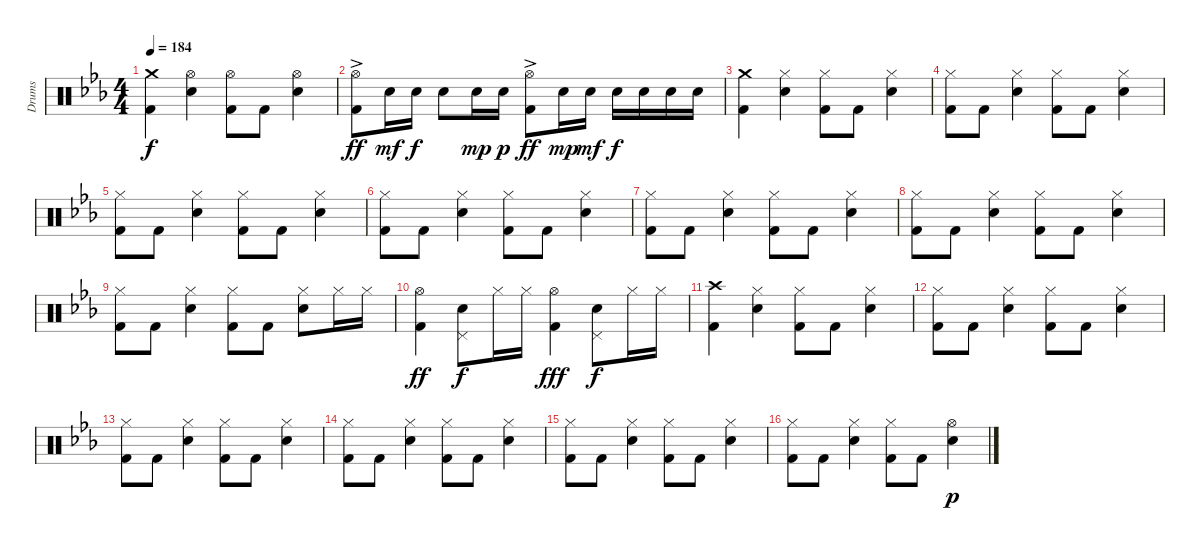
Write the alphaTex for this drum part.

\track ("Drums" "Drums") {instrument percussion}
\staff {score}
\articulation defaults
\ts (4 4)
\tempo 184
\clef neutral
\ks eb
("Crash medium (hit)" "Kick (hit) 2").4{dy f} ("Hi-Hat (open)" "Electric Snare (hit)").4 ("Hi-Hat (open)" "Kick (hit) 2").8 "Kick (hit) 2".8 ("Hi-Hat (open)" "Electric Snare (hit)").4 |
("Hi-Hat (open)"{ac} "Kick (hit) 2").8{dy ff} "Electric Snare (hit)".16{dy mf} "Electric Snare (hit)".16{dy f} "Electric Snare (hit)".8 "Electric Snare (hit)".16{dy mp} "Electric Snare (hit)".16{dy p} ("Hi-Hat (open)"{ac} "Kick (hit) 2").8{dy ff} "Electric Snare (hit)".16{dy mp} "Electric Snare (hit)".16{dy mf} "Electric Snare (hit)".16{dy f} "Electric Snare (hit)".16 "Electric Snare (hit)".16 "Electric Snare (hit)".16 |
("Crash medium (hit)" "Kick (hit) 2").4 ("Hi-Hat (closed)" "Electric Snare (hit)").4 ("Hi-Hat (closed)" "Kick (hit) 2").8 "Kick (hit) 2".8 ("Hi-Hat (closed)" "Electric Snare (hit)").4 |
("Hi-Hat (closed)" "Kick (hit) 2").8 "Kick (hit) 2".8 ("Hi-Hat (closed)" "Electric Snare (hit)").4 ("Hi-Hat (closed)" "Kick (hit) 2").8 "Kick (hit) 2".8 ("Hi-Hat (closed)" "Electric Snare (hit)").4 |
("Hi-Hat (closed)" "Kick (hit) 2").8 "Kick (hit) 2".8 ("Hi-Hat (closed)" "Electric Snare (hit)").4 ("Hi-Hat (closed)" "Kick (hit) 2").8 "Kick (hit) 2".8 ("Hi-Hat (closed)" "Electric Snare (hit)").4 |
("Hi-Hat (closed)" "Kick (hit) 2").8 "Kick (hit) 2".8 ("Hi-Hat (closed)" "Electric Snare (hit)").4 ("Hi-Hat (closed)" "Kick (hit) 2").8 "Kick (hit) 2".8 ("Hi-Hat (closed)" "Electric Snare (hit)").4 |
("Hi-Hat (closed)" "Kick (hit) 2").8 "Kick (hit) 2".8 ("Hi-Hat (closed)" "Electric Snare (hit)").4 ("Hi-Hat (closed)" "Kick (hit) 2").8 "Kick (hit) 2".8 ("Hi-Hat (closed)" "Electric Snare (hit)").4 |
("Hi-Hat (closed)" "Kick (hit) 2").8 "Kick (hit) 2".8 ("Hi-Hat (closed)" "Electric Snare (hit)").4 ("Hi-Hat (closed)" "Kick (hit) 2").8 "Kick (hit) 2".8 ("Hi-Hat (closed)" "Electric Snare (hit)").4 |
("Hi-Hat (closed)" "Kick (hit) 2").8 "Kick (hit) 2".8 ("Hi-Hat (closed)" "Electric Snare (hit)").4 ("Hi-Hat (closed)" "Kick (hit) 2").8 "Kick (hit) 2".8 ("Hi-Hat (closed)" "Electric Snare (hit)").8 "Hi-Hat (closed)".16 "Hi-Hat (closed)".16 |
("Hi-Hat (open)" "Kick (hit) 2").4{dy ff} ("Electric Snare (hit)" "Pedal Hi-Hat (hit)").8{dy f} "Hi-Hat (closed)".16 "Hi-Hat (closed)".16 ("Hi-Hat (open)" "Kick (hit) 2").4{dy fff} ("Electric Snare (hit)" "Pedal Hi-Hat (hit)").8{dy f} "Hi-Hat (closed)".16 "Hi-Hat (closed)".16 |
("Crash high (hit)" "Kick (hit) 2").4 ("Hi-Hat (closed)" "Electric Snare (hit)").4 ("Hi-Hat (closed)" "Kick (hit) 2").8 "Kick (hit) 2".8 ("Hi-Hat (closed)" "Electric Snare (hit)").4 |
("Hi-Hat (closed)" "Kick (hit) 2").8 "Kick (hit) 2".8 ("Hi-Hat (closed)" "Electric Snare (hit)").4 ("Hi-Hat (closed)" "Kick (hit) 2").8 "Kick (hit) 2".8 ("Hi-Hat (closed)" "Electric Snare (hit)").4 |
("Hi-Hat (closed)" "Kick (hit) 2").8 "Kick (hit) 2".8 ("Hi-Hat (closed)" "Electric Snare (hit)").4 ("Hi-Hat (closed)" "Kick (hit) 2").8 "Kick (hit) 2".8 ("Hi-Hat (closed)" "Electric Snare (hit)").4 |
("Hi-Hat (closed)" "Kick (hit) 2").8 "Kick (hit) 2".8 ("Hi-Hat (closed)" "Electric Snare (hit)").4 ("Hi-Hat (closed)" "Kick (hit) 2").8 "Kick (hit) 2".8 ("Hi-Hat (closed)" "Electric Snare (hit)").4 |
("Hi-Hat (closed)" "Kick (hit) 2").8 "Kick (hit) 2".8 ("Hi-Hat (closed)" "Electric Snare (hit)").4 ("Hi-Hat (closed)" "Kick (hit) 2").8 "Kick (hit) 2".8 ("Hi-Hat (closed)" "Electric Snare (hit)").4 |
("Hi-Hat (closed)" "Kick (hit) 2").8 "Kick (hit) 2".8 ("Hi-Hat (closed)" "Electric Snare (hit)").4 ("Hi-Hat (closed)" "Kick (hit) 2").8 "Kick (hit) 2".8 ("Hi-Hat (open)" "Electric Snare (hit)").4{dy p}
